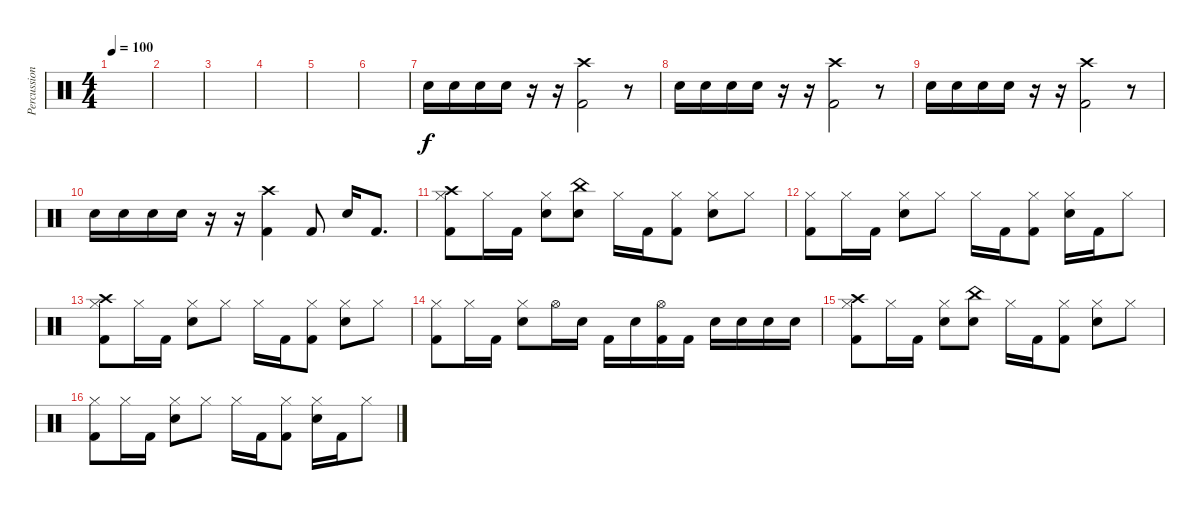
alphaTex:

\track ("Percussion" "Percussion") {instrument percussion}
\staff {score}
\articulation defaults
\ts (4 4)
\tempo 100
\clef neutral
\ks c
|
|
|
|
|
|
"Electric Snare (hit)".16 "Electric Snare (hit)".16 "Electric Snare (hit)".16 "Electric Snare (hit)".16 r.16 r.16 ("Crash high (hit)" "Kick (hit) 2").2 r.8 |
"Electric Snare (hit)".16 "Electric Snare (hit)".16 "Electric Snare (hit)".16 "Electric Snare (hit)".16 r.16 r.16 ("Crash high (hit)" "Kick (hit) 2").2 r.8 |
"Electric Snare (hit)".16 "Electric Snare (hit)".16 "Electric Snare (hit)".16 "Electric Snare (hit)".16 r.16 r.16 ("Crash high (hit)" "Kick (hit) 2").2 r.8 |
"Electric Snare (hit)".16 "Electric Snare (hit)".16 "Electric Snare (hit)".16 "Electric Snare (hit)".16 r.16 r.16 ("Crash high (hit)" "Kick (hit) 2").4 "Kick (hit) 2".8 "Electric Snare (hit)".16 "Kick (hit) 2".8{d} |
("Crash high (hit)" "Hi-Hat (closed)" "Kick (hit) 2").8 "Hi-Hat (closed)".16 "Kick (hit) 2".16 ("Hi-Hat (closed)" "Electric Snare (hit)").8 ("China (hit)" "Electric Snare (hit)").8 "Hi-Hat (closed)".16 "Kick (hit) 2".16 ("Hi-Hat (closed)" "Kick (hit) 2").8 ("Hi-Hat (closed)" "Electric Snare (hit)").8 "Hi-Hat (closed)".8 |
("Hi-Hat (closed)" "Kick (hit) 2").8 "Hi-Hat (closed)".16 "Kick (hit) 2".16 ("Hi-Hat (closed)" "Electric Snare (hit)").8 "Hi-Hat (closed)".8 "Hi-Hat (closed)".16 "Kick (hit) 2".16 ("Hi-Hat (closed)" "Kick (hit) 2").8 ("Hi-Hat (closed)" "Electric Snare (hit)").16 "Kick (hit) 2".16 "Hi-Hat (closed)".8 |
("Crash high (hit)" "Hi-Hat (closed)" "Kick (hit) 2").8 "Hi-Hat (closed)".16 "Kick (hit) 2".16 ("Hi-Hat (closed)" "Electric Snare (hit)").8 "Hi-Hat (closed)".8 "Hi-Hat (closed)".16 "Kick (hit) 2".16 ("Hi-Hat (closed)" "Kick (hit) 2").8 ("Hi-Hat (closed)" "Electric Snare (hit)").8 "Hi-Hat (closed)".8 |
("Hi-Hat (closed)" "Kick (hit) 2").8 "Hi-Hat (closed)".16 "Kick (hit) 2".16 ("Hi-Hat (closed)" "Electric Snare (hit)").8 "Hi-Hat (open)".16 "Electric Snare (hit)".16 "Kick (hit) 2".16 "Electric Snare (hit)".16 ("Hi-Hat (open)" "Kick (hit) 2").16 "Kick (hit) 2".16 "Electric Snare (hit)".16 "Electric Snare (hit)".16 "Electric Snare (hit)".16 "Electric Snare (hit)".16 |
("Crash high (hit)" "Hi-Hat (closed)" "Kick (hit) 2").8 "Hi-Hat (closed)".16 "Kick (hit) 2".16 ("Hi-Hat (closed)" "Electric Snare (hit)").8 ("China (hit)" "Electric Snare (hit)").8 "Hi-Hat (closed)".16 "Kick (hit) 2".16 ("Hi-Hat (closed)" "Kick (hit) 2").8 ("Hi-Hat (closed)" "Electric Snare (hit)").8 "Hi-Hat (closed)".8 |
("Hi-Hat (closed)" "Kick (hit) 2").8 "Hi-Hat (closed)".16 "Kick (hit) 2".16 ("Hi-Hat (closed)" "Electric Snare (hit)").8 "Hi-Hat (closed)".8 "Hi-Hat (closed)".16 "Kick (hit) 2".16 ("Hi-Hat (closed)" "Kick (hit) 2").8 ("Hi-Hat (closed)" "Electric Snare (hit)").16 "Kick (hit) 2".16 "Hi-Hat (closed)".8
